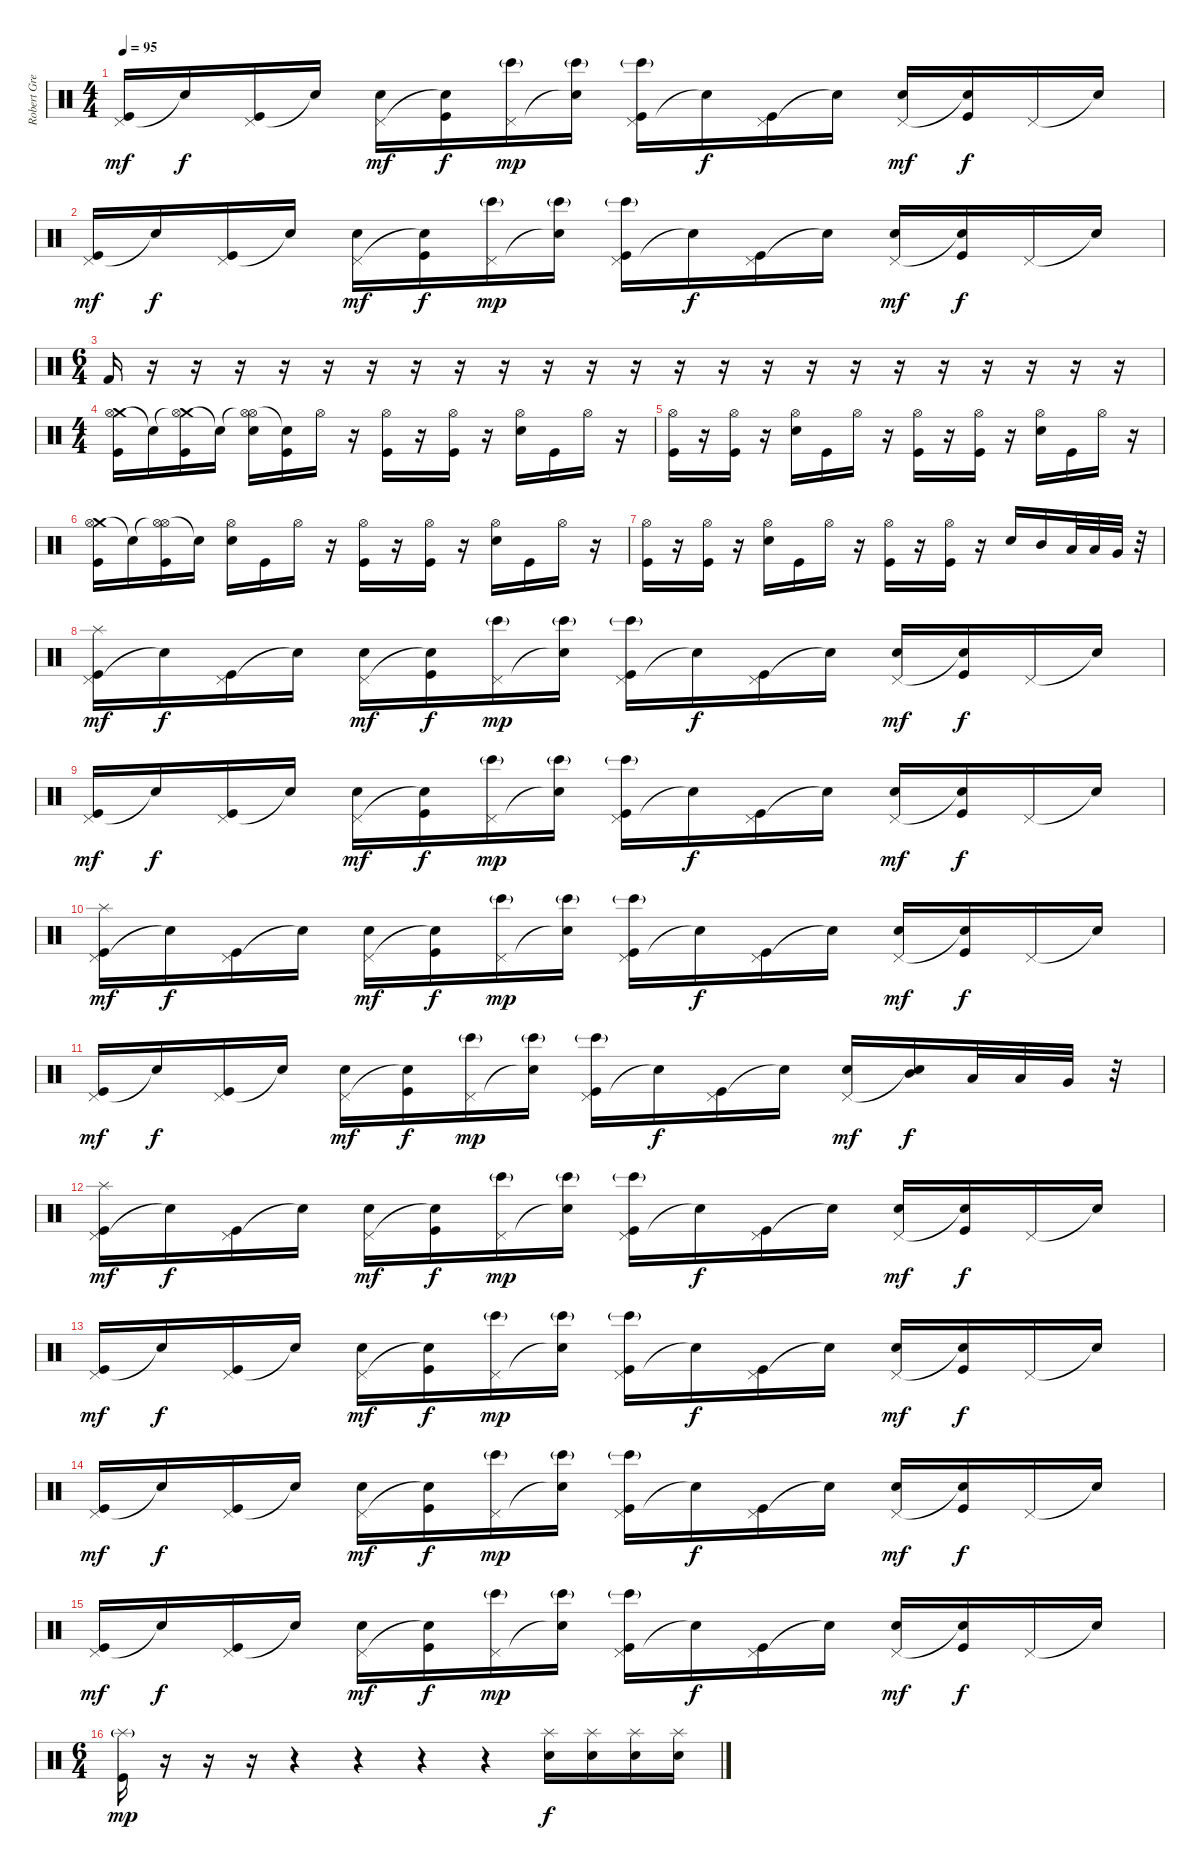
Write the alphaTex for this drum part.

\track ("Robert Gregory Bourdan" "Robert Gre") {instrument percussion}
\staff {score}
\articulation defaults
\ts (4 4)
\tempo 95
\clef neutral
\ks c
("Pedal Hi-Hat (hit)" "Kick (hit)").16{dy mf} "Snare (hit)"{t}.16{dy f} ("Pedal Hi-Hat (hit)" "Kick (hit)").16 "Snare (hit)"{t}.16 ("Pedal Hi-Hat (hit)" "Electric Snare (hit)").16{dy mf} ("Snare (hit)"{t} "Kick (hit)").16{dy f} ("Pedal Hi-Hat (hit)" "Bongo High (hit)"{g}).16{dy mp} ("Snare (hit)"{t} "Bongo High (hit)"{g}).16 ("Pedal Hi-Hat (hit)" "Kick (hit)" "Bongo High (hit)"{g}).16 "Snare (hit)"{t}.16{dy f} ("Pedal Hi-Hat (hit)" "Kick (hit)").16 "Snare (hit)"{t}.16 ("Pedal Hi-Hat (hit)" "Electric Snare (hit)").16{dy mf} ("Snare (hit)"{t} "Kick (hit)").16{dy f} "Pedal Hi-Hat (hit)".16 "Snare (hit)"{t}.16 |
("Pedal Hi-Hat (hit)" "Kick (hit)").16{dy mf} "Snare (hit)"{t}.16{dy f} ("Pedal Hi-Hat (hit)" "Kick (hit)").16 "Snare (hit)"{t}.16 ("Pedal Hi-Hat (hit)" "Electric Snare (hit)").16{dy mf} ("Snare (hit)"{t} "Kick (hit)").16{dy f} ("Pedal Hi-Hat (hit)" "Bongo High (hit)"{g}).16{dy mp} ("Snare (hit)"{t} "Bongo High (hit)"{g}).16 ("Pedal Hi-Hat (hit)" "Kick (hit)" "Bongo High (hit)"{g}).16 "Snare (hit)"{t}.16{dy f} ("Pedal Hi-Hat (hit)" "Kick (hit)").16 "Snare (hit)"{t}.16 ("Pedal Hi-Hat (hit)" "Electric Snare (hit)").16{dy mf} ("Snare (hit)"{t} "Kick (hit)").16{dy f} "Pedal Hi-Hat (hit)".16 "Snare (hit)"{t}.16 |
\ts (6 4)
"Kick (hit) 2".16 r.16 r.16 r.16 r.16 r.16 r.16 r.16 r.16 r.16 r.16 r.16 r.16 r.16 r.16 r.16 r.16 r.16 r.16 r.16 r.16 r.16 r.16 r.16 |
\ts (4 4)
("Crash medium (hit)" "Hi-Hat (open)" "Kick (hit)").16 "Snare (hit)"{t}.16 ("Crash medium (hit)"{t} "Hi-Hat (open)" "Kick (hit)").16 "Snare (hit)"{t}.16 ("Hi-Hat (open)"{t} "Hi-Hat (open)" "Electric Snare (hit)").16 ("Snare (hit)"{t} "Kick (hit)").16 "Hi-Hat (open)".16 r.16 ("Hi-Hat (open)" "Kick (hit)").16 r.16 ("Hi-Hat (open)" "Kick (hit)").16 r.16 ("Hi-Hat (open)" "Electric Snare (hit)").16 "Kick (hit)".16 "Hi-Hat (open)".16 r.16 |
("Hi-Hat (open)" "Kick (hit)").16 r.16 ("Hi-Hat (open)" "Kick (hit)").16 r.16 ("Hi-Hat (open)" "Electric Snare (hit)").16 "Kick (hit)".16 "Hi-Hat (open)".16 r.16 ("Hi-Hat (open)" "Kick (hit)").16 r.16 ("Hi-Hat (open)" "Kick (hit)").16 r.16 ("Hi-Hat (open)" "Electric Snare (hit)").16 "Kick (hit)".16 "Hi-Hat (open)".16 r.16 |
("Crash medium (hit)" "Hi-Hat (open)" "Kick (hit)").16 "Snare (hit)"{t}.16 ("Hi-Hat (open)"{t} "Hi-Hat (open)" "Kick (hit)").16 "Snare (hit)"{t}.16 ("Hi-Hat (open)" "Electric Snare (hit)").16 "Kick (hit)".16 "Hi-Hat (open)".16 r.16 ("Hi-Hat (open)" "Kick (hit)").16 r.16 ("Hi-Hat (open)" "Kick (hit)").16 r.16 ("Hi-Hat (open)" "Electric Snare (hit)").16 "Kick (hit)".16 "Hi-Hat (open)".16 r.16 |
("Hi-Hat (open)" "Kick (hit)").16 r.16 ("Hi-Hat (open)" "Kick (hit)").16 r.16 ("Hi-Hat (open)" "Electric Snare (hit)").16 "Kick (hit)".16 "Hi-Hat (open)".16 r.16 ("Hi-Hat (open)" "Kick (hit)").16 r.16 ("Hi-Hat (open)" "Kick (hit)").16 r.16 "Electric Snare (hit)".16 "Mid Tom (hit)".16 "Low Tom (hit)".32 "Low Tom (hit)".32 "Very Low Tom (hit)".32 r.32 |
("Pedal Hi-Hat (hit)" "Splash (hit)" "Kick (hit)").16{dy mf} "Snare (hit)"{t}.16{dy f} ("Pedal Hi-Hat (hit)" "Kick (hit)").16 "Snare (hit)"{t}.16 ("Pedal Hi-Hat (hit)" "Electric Snare (hit)").16{dy mf} ("Snare (hit)"{t} "Kick (hit)").16{dy f} ("Pedal Hi-Hat (hit)" "Bongo High (hit)"{g}).16{dy mp} ("Snare (hit)"{t} "Bongo High (hit)"{g}).16 ("Pedal Hi-Hat (hit)" "Kick (hit)" "Bongo High (hit)"{g}).16 "Snare (hit)"{t}.16{dy f} ("Pedal Hi-Hat (hit)" "Kick (hit)").16 "Snare (hit)"{t}.16 ("Pedal Hi-Hat (hit)" "Electric Snare (hit)").16{dy mf} ("Snare (hit)"{t} "Kick (hit)").16{dy f} "Pedal Hi-Hat (hit)".16 "Snare (hit)"{t}.16 |
("Pedal Hi-Hat (hit)" "Kick (hit)").16{dy mf} "Snare (hit)"{t}.16{dy f} ("Pedal Hi-Hat (hit)" "Kick (hit)").16 "Snare (hit)"{t}.16 ("Pedal Hi-Hat (hit)" "Electric Snare (hit)").16{dy mf} ("Snare (hit)"{t} "Kick (hit)").16{dy f} ("Pedal Hi-Hat (hit)" "Bongo High (hit)"{g}).16{dy mp} ("Snare (hit)"{t} "Bongo High (hit)"{g}).16 ("Pedal Hi-Hat (hit)" "Kick (hit)" "Bongo High (hit)"{g}).16 "Snare (hit)"{t}.16{dy f} ("Pedal Hi-Hat (hit)" "Kick (hit)").16 "Snare (hit)"{t}.16 ("Pedal Hi-Hat (hit)" "Electric Snare (hit)").16{dy mf} ("Snare (hit)"{t} "Kick (hit)").16{dy f} "Pedal Hi-Hat (hit)".16 "Snare (hit)"{t}.16 |
("Pedal Hi-Hat (hit)" "Splash (hit)" "Kick (hit)").16{dy mf} "Snare (hit)"{t}.16{dy f} ("Pedal Hi-Hat (hit)" "Kick (hit)").16 "Snare (hit)"{t}.16 ("Pedal Hi-Hat (hit)" "Electric Snare (hit)").16{dy mf} ("Snare (hit)"{t} "Kick (hit)").16{dy f} ("Pedal Hi-Hat (hit)" "Bongo High (hit)"{g}).16{dy mp} ("Snare (hit)"{t} "Bongo High (hit)"{g}).16 ("Pedal Hi-Hat (hit)" "Kick (hit)" "Bongo High (hit)"{g}).16 "Snare (hit)"{t}.16{dy f} ("Pedal Hi-Hat (hit)" "Kick (hit)").16 "Snare (hit)"{t}.16 ("Pedal Hi-Hat (hit)" "Electric Snare (hit)").16{dy mf} ("Snare (hit)"{t} "Kick (hit)").16{dy f} "Pedal Hi-Hat (hit)".16 "Snare (hit)"{t}.16 |
("Pedal Hi-Hat (hit)" "Kick (hit)").16{dy mf} "Snare (hit)"{t}.16{dy f} ("Pedal Hi-Hat (hit)" "Kick (hit)").16 "Snare (hit)"{t}.16 ("Pedal Hi-Hat (hit)" "Electric Snare (hit)").16{dy mf} ("Snare (hit)"{t} "Kick (hit)").16{dy f} ("Pedal Hi-Hat (hit)" "Bongo High (hit)"{g}).16{dy mp} ("Snare (hit)"{t} "Bongo High (hit)"{g}).16 ("Pedal Hi-Hat (hit)" "Kick (hit)" "Bongo High (hit)"{g}).16 "Snare (hit)"{t}.16{dy f} ("Pedal Hi-Hat (hit)" "Kick (hit)").16 "Snare (hit)"{t}.16 ("Pedal Hi-Hat (hit)" "Electric Snare (hit)").16{dy mf} ("Snare (hit)"{t} "Mid Tom (hit)").16{dy f} "Low Tom (hit)".32 "Low Tom (hit)".32 "Very Low Tom (hit)".32 r.32 |
("Pedal Hi-Hat (hit)" "Splash (hit)" "Kick (hit)").16{dy mf} "Snare (hit)"{t}.16{dy f} ("Pedal Hi-Hat (hit)" "Kick (hit)").16 "Snare (hit)"{t}.16 ("Pedal Hi-Hat (hit)" "Electric Snare (hit)").16{dy mf} ("Snare (hit)"{t} "Kick (hit)").16{dy f} ("Pedal Hi-Hat (hit)" "Bongo High (hit)"{g}).16{dy mp} ("Snare (hit)"{t} "Bongo High (hit)"{g}).16 ("Pedal Hi-Hat (hit)" "Kick (hit)" "Bongo High (hit)"{g}).16 "Snare (hit)"{t}.16{dy f} ("Pedal Hi-Hat (hit)" "Kick (hit)").16 "Snare (hit)"{t}.16 ("Pedal Hi-Hat (hit)" "Electric Snare (hit)").16{dy mf} ("Snare (hit)"{t} "Kick (hit)").16{dy f} "Pedal Hi-Hat (hit)".16 "Snare (hit)"{t}.16 |
("Pedal Hi-Hat (hit)" "Kick (hit)").16{dy mf} "Snare (hit)"{t}.16{dy f} ("Pedal Hi-Hat (hit)" "Kick (hit)").16 "Snare (hit)"{t}.16 ("Pedal Hi-Hat (hit)" "Electric Snare (hit)").16{dy mf} ("Snare (hit)"{t} "Kick (hit)").16{dy f} ("Pedal Hi-Hat (hit)" "Bongo High (hit)"{g}).16{dy mp} ("Snare (hit)"{t} "Bongo High (hit)"{g}).16 ("Pedal Hi-Hat (hit)" "Kick (hit)" "Bongo High (hit)"{g}).16 "Snare (hit)"{t}.16{dy f} ("Pedal Hi-Hat (hit)" "Kick (hit)").16 "Snare (hit)"{t}.16 ("Pedal Hi-Hat (hit)" "Electric Snare (hit)").16{dy mf} ("Snare (hit)"{t} "Kick (hit)").16{dy f} "Pedal Hi-Hat (hit)".16 "Snare (hit)"{t}.16 |
("Pedal Hi-Hat (hit)" "Kick (hit)").16{dy mf} "Snare (hit)"{t}.16{dy f} ("Pedal Hi-Hat (hit)" "Kick (hit)").16 "Snare (hit)"{t}.16 ("Pedal Hi-Hat (hit)" "Electric Snare (hit)").16{dy mf} ("Snare (hit)"{t} "Kick (hit)").16{dy f} ("Pedal Hi-Hat (hit)" "Bongo High (hit)"{g}).16{dy mp} ("Snare (hit)"{t} "Bongo High (hit)"{g}).16 ("Pedal Hi-Hat (hit)" "Kick (hit)" "Bongo High (hit)"{g}).16 "Snare (hit)"{t}.16{dy f} ("Pedal Hi-Hat (hit)" "Kick (hit)").16 "Snare (hit)"{t}.16 ("Pedal Hi-Hat (hit)" "Electric Snare (hit)").16{dy mf} ("Snare (hit)"{t} "Kick (hit)").16{dy f} "Pedal Hi-Hat (hit)".16 "Snare (hit)"{t}.16 |
("Pedal Hi-Hat (hit)" "Kick (hit)").16{dy mf} "Snare (hit)"{t}.16{dy f} ("Pedal Hi-Hat (hit)" "Kick (hit)").16 "Snare (hit)"{t}.16 ("Pedal Hi-Hat (hit)" "Electric Snare (hit)").16{dy mf} ("Snare (hit)"{t} "Kick (hit)").16{dy f} ("Pedal Hi-Hat (hit)" "Bongo High (hit)"{g}).16{dy mp} ("Snare (hit)"{t} "Bongo High (hit)"{g}).16 ("Pedal Hi-Hat (hit)" "Kick (hit)" "Bongo High (hit)"{g}).16 "Snare (hit)"{t}.16{dy f} ("Pedal Hi-Hat (hit)" "Kick (hit)").16 "Snare (hit)"{t}.16 ("Pedal Hi-Hat (hit)" "Electric Snare (hit)").16{dy mf} ("Snare (hit)"{t} "Kick (hit)").16{dy f} "Pedal Hi-Hat (hit)".16 "Snare (hit)"{t}.16 |
\ts (6 4)
("Splash (hit)"{g} "Kick (hit)").16{dy mp} r.16 r.16 r.16 r.4 r.4 r.4 r.4 ("Electric Snare (hit)" "Splash (hit)").16{dy f} ("Electric Snare (hit)" "Splash (hit)").16 ("Electric Snare (hit)" "Splash (hit)").16 ("Electric Snare (hit)" "Splash (hit)").16
